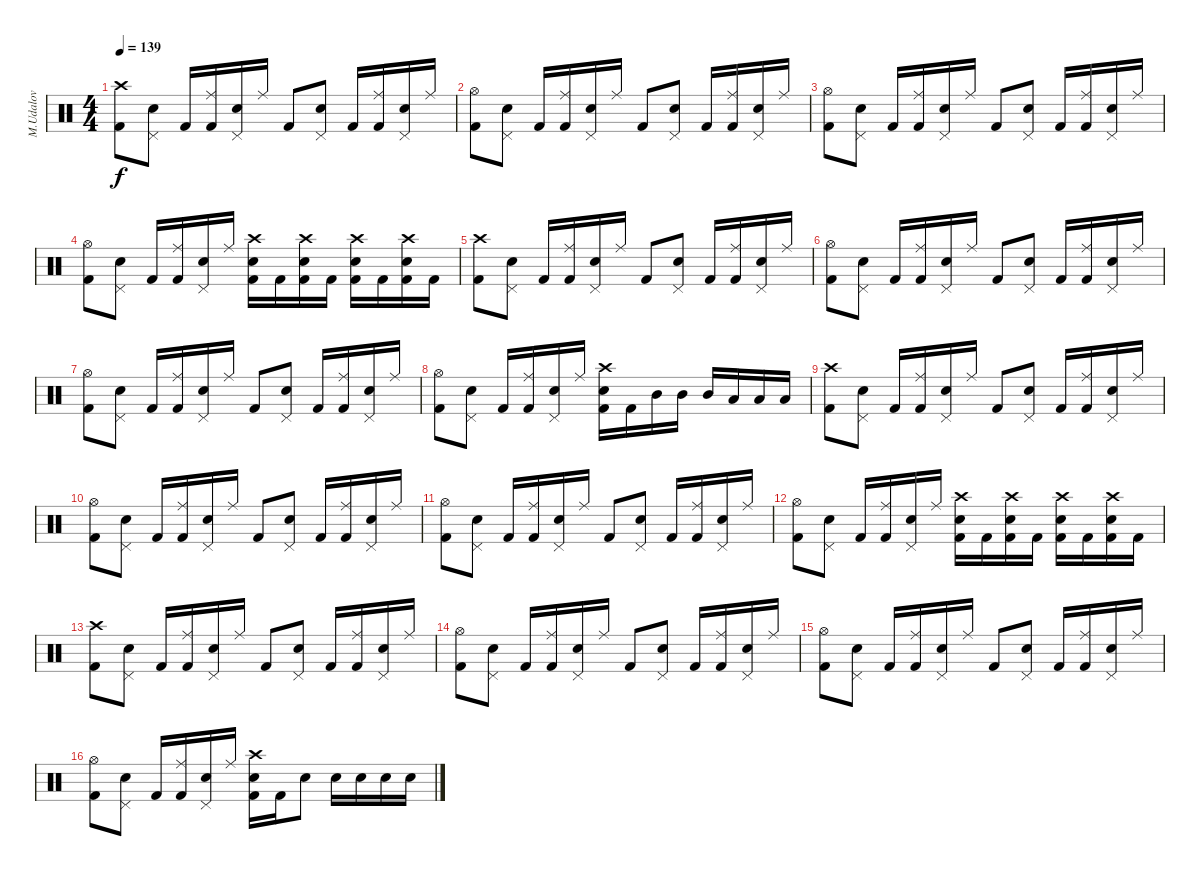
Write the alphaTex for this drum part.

\track ("M.Udalov" "M.Udalov") {instrument percussion}
\staff {score}
\articulation defaults
\ts (4 4)
\tempo 139
\clef neutral
\ks c
("Crash high (hit)" "Kick (hit) 2").8{dy f} ("Pedal Hi-Hat (hit)" "Snare (hit) 2").8 "Kick (hit) 2".16 ("Ride (middle)" "Kick (hit) 2").16 ("Pedal Hi-Hat (hit)" "Snare (hit) 2").16 "Ride (middle)".16 "Kick (hit) 2".8 ("Pedal Hi-Hat (hit)" "Snare (hit) 2").8 "Kick (hit) 2".16 ("Ride (middle)" "Kick (hit) 2").16 ("Pedal Hi-Hat (hit)" "Snare (hit) 2").16 "Ride (middle)".16 |
("Hi-Hat (open)" "Kick (hit) 2").8 ("Pedal Hi-Hat (hit)" "Snare (hit) 2").8 "Kick (hit) 2".16 ("Ride (middle)" "Kick (hit) 2").16 ("Pedal Hi-Hat (hit)" "Snare (hit) 2").16 "Ride (middle)".16 "Kick (hit) 2".8 ("Pedal Hi-Hat (hit)" "Snare (hit) 2").8 "Kick (hit) 2".16 ("Ride (middle)" "Kick (hit) 2").16 ("Pedal Hi-Hat (hit)" "Snare (hit) 2").16 "Ride (middle)".16 |
("Hi-Hat (open)" "Kick (hit) 2").8 ("Pedal Hi-Hat (hit)" "Snare (hit) 2").8 "Kick (hit) 2".16 ("Ride (middle)" "Kick (hit) 2").16 ("Pedal Hi-Hat (hit)" "Snare (hit) 2").16 "Ride (middle)".16 "Kick (hit) 2".8 ("Pedal Hi-Hat (hit)" "Snare (hit) 2").8 "Kick (hit) 2".16 ("Ride (middle)" "Kick (hit) 2").16 ("Pedal Hi-Hat (hit)" "Snare (hit) 2").16 "Ride (middle)".16 |
("Hi-Hat (open)" "Kick (hit) 2").8 ("Pedal Hi-Hat (hit)" "Snare (hit) 2").8 "Kick (hit) 2".16 ("Ride (middle)" "Kick (hit) 2").16 ("Pedal Hi-Hat (hit)" "Snare (hit) 2").16 "Ride (middle)".16 ("Crash high (hit)" "Snare (hit) 2" "Kick (hit) 2").16 "Kick (hit) 2".16 ("Crash high (hit)" "Snare (hit) 2" "Kick (hit) 2").16 "Kick (hit) 2".16 ("Crash high (hit)" "Snare (hit) 2" "Kick (hit) 2").16 "Kick (hit) 2".16 ("Crash high (hit)" "Snare (hit) 2" "Kick (hit) 2").16 "Kick (hit) 2".16 |
("Crash high (hit)" "Kick (hit) 2").8 ("Pedal Hi-Hat (hit)" "Snare (hit) 2").8 "Kick (hit) 2".16 ("Ride (middle)" "Kick (hit) 2").16 ("Pedal Hi-Hat (hit)" "Snare (hit) 2").16 "Ride (middle)".16 "Kick (hit) 2".8 ("Pedal Hi-Hat (hit)" "Snare (hit) 2").8 "Kick (hit) 2".16 ("Ride (middle)" "Kick (hit) 2").16 ("Pedal Hi-Hat (hit)" "Snare (hit) 2").16 "Ride (middle)".16 |
("Hi-Hat (open)" "Kick (hit) 2").8 ("Pedal Hi-Hat (hit)" "Snare (hit) 2").8 "Kick (hit) 2".16 ("Ride (middle)" "Kick (hit) 2").16 ("Pedal Hi-Hat (hit)" "Snare (hit) 2").16 "Ride (middle)".16 "Kick (hit) 2".8 ("Pedal Hi-Hat (hit)" "Snare (hit) 2").8 "Kick (hit) 2".16 ("Ride (middle)" "Kick (hit) 2").16 ("Pedal Hi-Hat (hit)" "Snare (hit) 2").16 "Ride (middle)".16 |
("Hi-Hat (open)" "Kick (hit) 2").8 ("Pedal Hi-Hat (hit)" "Snare (hit) 2").8 "Kick (hit) 2".16 ("Ride (middle)" "Kick (hit) 2").16 ("Pedal Hi-Hat (hit)" "Snare (hit) 2").16 "Ride (middle)".16 "Kick (hit) 2".8 ("Pedal Hi-Hat (hit)" "Snare (hit) 2").8 "Kick (hit) 2".16 ("Ride (middle)" "Kick (hit) 2").16 ("Pedal Hi-Hat (hit)" "Snare (hit) 2").16 "Ride (middle)".16 |
("Hi-Hat (open)" "Kick (hit) 2").8 ("Pedal Hi-Hat (hit)" "Snare (hit) 2").8 "Kick (hit) 2".16 ("Ride (middle)" "Kick (hit) 2").16 ("Pedal Hi-Hat (hit)" "Snare (hit) 2").16 "Ride (middle)".16 ("Crash high (hit)" "Snare (hit) 2" "Kick (hit) 2").16 "Kick (hit) 2".16 "Mid Tom (hit)".16 "Mid Tom (hit)".16 "Mid Tom (hit)".16 "Low Tom (hit)".16 "Low Tom (hit)".16 "Low Tom (hit)".16 |
("Crash high (hit)" "Kick (hit) 2").8 ("Pedal Hi-Hat (hit)" "Snare (hit) 2").8 "Kick (hit) 2".16 ("Ride (middle)" "Kick (hit) 2").16 ("Pedal Hi-Hat (hit)" "Snare (hit) 2").16 "Ride (middle)".16 "Kick (hit) 2".8 ("Pedal Hi-Hat (hit)" "Snare (hit) 2").8 "Kick (hit) 2".16 ("Ride (middle)" "Kick (hit) 2").16 ("Pedal Hi-Hat (hit)" "Snare (hit) 2").16 "Ride (middle)".16 |
("Hi-Hat (open)" "Kick (hit) 2").8 ("Pedal Hi-Hat (hit)" "Snare (hit) 2").8 "Kick (hit) 2".16 ("Ride (middle)" "Kick (hit) 2").16 ("Pedal Hi-Hat (hit)" "Snare (hit) 2").16 "Ride (middle)".16 "Kick (hit) 2".8 ("Pedal Hi-Hat (hit)" "Snare (hit) 2").8 "Kick (hit) 2".16 ("Ride (middle)" "Kick (hit) 2").16 ("Pedal Hi-Hat (hit)" "Snare (hit) 2").16 "Ride (middle)".16 |
("Hi-Hat (open)" "Kick (hit) 2").8 ("Pedal Hi-Hat (hit)" "Snare (hit) 2").8 "Kick (hit) 2".16 ("Ride (middle)" "Kick (hit) 2").16 ("Pedal Hi-Hat (hit)" "Snare (hit) 2").16 "Ride (middle)".16 "Kick (hit) 2".8 ("Pedal Hi-Hat (hit)" "Snare (hit) 2").8 "Kick (hit) 2".16 ("Ride (middle)" "Kick (hit) 2").16 ("Pedal Hi-Hat (hit)" "Snare (hit) 2").16 "Ride (middle)".16 |
("Hi-Hat (open)" "Kick (hit) 2").8 ("Pedal Hi-Hat (hit)" "Snare (hit) 2").8 "Kick (hit) 2".16 ("Ride (middle)" "Kick (hit) 2").16 ("Pedal Hi-Hat (hit)" "Snare (hit) 2").16 "Ride (middle)".16 ("Crash high (hit)" "Snare (hit) 2" "Kick (hit) 2").16 "Kick (hit) 2".16 ("Crash high (hit)" "Snare (hit) 2" "Kick (hit) 2").16 "Kick (hit) 2".16 ("Crash high (hit)" "Snare (hit) 2" "Kick (hit) 2").16 "Kick (hit) 2".16 ("Crash high (hit)" "Snare (hit) 2" "Kick (hit) 2").16 "Kick (hit) 2".16 |
("Crash high (hit)" "Kick (hit) 2").8 ("Pedal Hi-Hat (hit)" "Snare (hit) 2").8 "Kick (hit) 2".16 ("Ride (middle)" "Kick (hit) 2").16 ("Pedal Hi-Hat (hit)" "Snare (hit) 2").16 "Ride (middle)".16 "Kick (hit) 2".8 ("Pedal Hi-Hat (hit)" "Snare (hit) 2").8 "Kick (hit) 2".16 ("Ride (middle)" "Kick (hit) 2").16 ("Pedal Hi-Hat (hit)" "Snare (hit) 2").16 "Ride (middle)".16 |
("Hi-Hat (open)" "Kick (hit) 2").8 ("Pedal Hi-Hat (hit)" "Snare (hit) 2").8 "Kick (hit) 2".16 ("Ride (middle)" "Kick (hit) 2").16 ("Pedal Hi-Hat (hit)" "Snare (hit) 2").16 "Ride (middle)".16 "Kick (hit) 2".8 ("Pedal Hi-Hat (hit)" "Snare (hit) 2").8 "Kick (hit) 2".16 ("Ride (middle)" "Kick (hit) 2").16 ("Pedal Hi-Hat (hit)" "Snare (hit) 2").16 "Ride (middle)".16 |
("Hi-Hat (open)" "Kick (hit) 2").8 ("Pedal Hi-Hat (hit)" "Snare (hit) 2").8 "Kick (hit) 2".16 ("Ride (middle)" "Kick (hit) 2").16 ("Pedal Hi-Hat (hit)" "Snare (hit) 2").16 "Ride (middle)".16 "Kick (hit) 2".8 ("Pedal Hi-Hat (hit)" "Snare (hit) 2").8 "Kick (hit) 2".16 ("Ride (middle)" "Kick (hit) 2").16 ("Pedal Hi-Hat (hit)" "Snare (hit) 2").16 "Ride (middle)".16 |
("Hi-Hat (open)" "Kick (hit) 2").8 ("Pedal Hi-Hat (hit)" "Snare (hit) 2").8 "Kick (hit) 2".16 ("Ride (middle)" "Kick (hit) 2").16 ("Pedal Hi-Hat (hit)" "Snare (hit) 2").16 "Ride (middle)".16 ("Crash high (hit)" "Snare (hit) 2" "Kick (hit) 2").16 "Kick (hit) 2".16 "Snare (hit) 2".8 "Snare (hit) 2".16 "Snare (hit) 2".16 "Snare (hit) 2".16 "Snare (hit) 2".16
